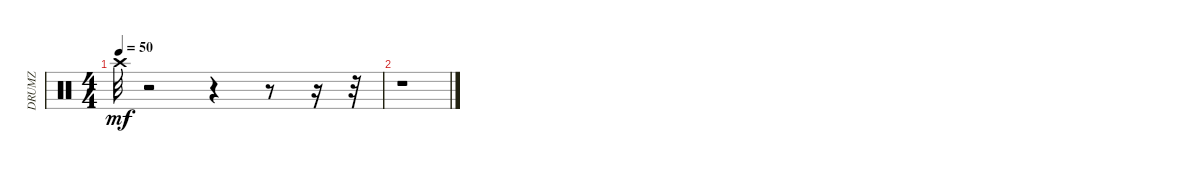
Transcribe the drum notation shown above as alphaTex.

\track ("DRUMZ" "DRUMZ") {instrument percussion}
\staff {score}
\articulation defaults
\ts (4 4)
\tempo 50
\clef neutral
\ks c "Crash high (hit)".32{dy mf}
r.2 r.4 r.8 r.16 r.32 |
r.1
